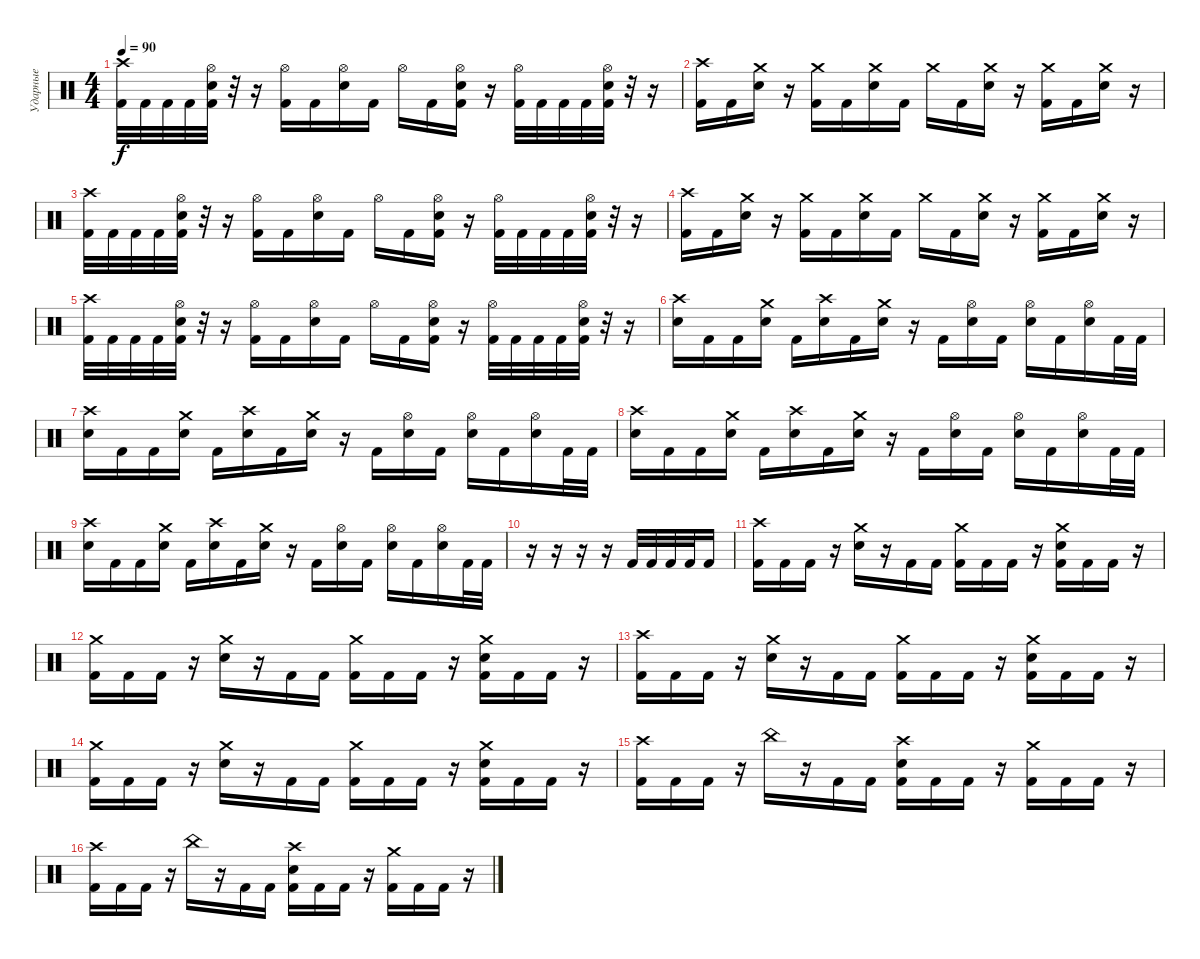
\track ("Ударные" "Ударные") {instrument percussion}
\staff {score}
\articulation defaults
\ts (4 4)
\tempo 90
\clef neutral
\ks c
("Crash high (hit)" "Kick (hit) 2").32{dy f} "Kick (hit) 2".32 "Kick (hit) 2".32 "Kick (hit) 2".32 ("Hi-Hat (open)" "Electric Snare (hit)" "Kick (hit) 2").32 r.32 r.16 ("Hi-Hat (open)" "Kick (hit) 2").16 "Kick (hit) 2".16 ("Hi-Hat (open)" "Electric Snare (hit)").16 "Kick (hit) 2".16 "Hi-Hat (open)".16 "Kick (hit) 2".16 ("Hi-Hat (open)" "Electric Snare (hit)" "Kick (hit) 2").16 r.16 ("Hi-Hat (open)" "Kick (hit) 2").32 "Kick (hit) 2".32 "Kick (hit) 2".32 "Kick (hit) 2".32 ("Hi-Hat (open)" "Electric Snare (hit)" "Kick (hit) 2").32 r.32 r.16 |
("Crash high (hit)" "Kick (hit) 2").16 "Kick (hit) 2".16 ("Crash medium (hit)" "Electric Snare (hit)").16 r.16 ("Crash medium (hit)" "Kick (hit) 2").16 "Kick (hit) 2".16 ("Crash medium (hit)" "Electric Snare (hit)").16 "Kick (hit) 2".16 "Crash medium (hit)".16 "Kick (hit) 2".16 ("Crash medium (hit)" "Electric Snare (hit)").16 r.16 ("Crash medium (hit)" "Kick (hit) 2").16 "Kick (hit) 2".16 ("Crash medium (hit)" "Electric Snare (hit)").16 r.16 |
("Crash high (hit)" "Kick (hit) 2").32 "Kick (hit) 2".32 "Kick (hit) 2".32 "Kick (hit) 2".32 ("Hi-Hat (open)" "Electric Snare (hit)" "Kick (hit) 2").32 r.32 r.16 ("Hi-Hat (open)" "Kick (hit) 2").16 "Kick (hit) 2".16 ("Hi-Hat (open)" "Electric Snare (hit)").16 "Kick (hit) 2".16 "Hi-Hat (open)".16 "Kick (hit) 2".16 ("Hi-Hat (open)" "Electric Snare (hit)" "Kick (hit) 2").16 r.16 ("Hi-Hat (open)" "Kick (hit) 2").32 "Kick (hit) 2".32 "Kick (hit) 2".32 "Kick (hit) 2".32 ("Hi-Hat (open)" "Electric Snare (hit)" "Kick (hit) 2").32 r.32 r.16 |
("Crash high (hit)" "Kick (hit) 2").16 "Kick (hit) 2".16 ("Crash medium (hit)" "Electric Snare (hit)").16 r.16 ("Crash medium (hit)" "Kick (hit) 2").16 "Kick (hit) 2".16 ("Crash medium (hit)" "Electric Snare (hit)").16 "Kick (hit) 2".16 "Crash medium (hit)".16 "Kick (hit) 2".16 ("Crash medium (hit)" "Electric Snare (hit)").16 r.16 ("Crash medium (hit)" "Kick (hit) 2").16 "Kick (hit) 2".16 ("Crash medium (hit)" "Electric Snare (hit)").16 r.16 |
("Crash high (hit)" "Kick (hit) 2").32 "Kick (hit) 2".32 "Kick (hit) 2".32 "Kick (hit) 2".32 ("Hi-Hat (open)" "Electric Snare (hit)" "Kick (hit) 2").32 r.32 r.16 ("Hi-Hat (open)" "Kick (hit) 2").16 "Kick (hit) 2".16 ("Hi-Hat (open)" "Electric Snare (hit)").16 "Kick (hit) 2".16 "Hi-Hat (open)".16 "Kick (hit) 2".16 ("Hi-Hat (open)" "Electric Snare (hit)" "Kick (hit) 2").16 r.16 ("Hi-Hat (open)" "Kick (hit) 2").32 "Kick (hit) 2".32 "Kick (hit) 2".32 "Kick (hit) 2".32 ("Hi-Hat (open)" "Electric Snare (hit)" "Kick (hit) 2").32 r.32 r.16 |
("Crash high (hit)" "Electric Snare (hit)").16 "Kick (hit) 2".16 "Kick (hit) 2".16 ("Crash medium (hit)" "Electric Snare (hit)").16 "Kick (hit) 2".16 ("Crash high (hit)" "Electric Snare (hit)").16 "Kick (hit) 2".16 ("Crash medium (hit)" "Electric Snare (hit)").16 r.16 "Kick (hit) 2".16 ("Hi-Hat (open)" "Electric Snare (hit)").16 "Kick (hit) 2".16 ("Hi-Hat (open)" "Electric Snare (hit)").16 "Kick (hit) 2".16 ("Hi-Hat (open)" "Electric Snare (hit)").16 "Kick (hit) 2".32 "Kick (hit) 2".32 |
("Crash high (hit)" "Electric Snare (hit)").16 "Kick (hit) 2".16 "Kick (hit) 2".16 ("Crash medium (hit)" "Electric Snare (hit)").16 "Kick (hit) 2".16 ("Crash high (hit)" "Electric Snare (hit)").16 "Kick (hit) 2".16 ("Crash medium (hit)" "Electric Snare (hit)").16 r.16 "Kick (hit) 2".16 ("Hi-Hat (open)" "Electric Snare (hit)").16 "Kick (hit) 2".16 ("Hi-Hat (open)" "Electric Snare (hit)").16 "Kick (hit) 2".16 ("Hi-Hat (open)" "Electric Snare (hit)").16 "Kick (hit) 2".32 "Kick (hit) 2".32 |
("Crash high (hit)" "Electric Snare (hit)").16 "Kick (hit) 2".16 "Kick (hit) 2".16 ("Crash medium (hit)" "Electric Snare (hit)").16 "Kick (hit) 2".16 ("Crash high (hit)" "Electric Snare (hit)").16 "Kick (hit) 2".16 ("Crash medium (hit)" "Electric Snare (hit)").16 r.16 "Kick (hit) 2".16 ("Hi-Hat (open)" "Electric Snare (hit)").16 "Kick (hit) 2".16 ("Hi-Hat (open)" "Electric Snare (hit)").16 "Kick (hit) 2".16 ("Hi-Hat (open)" "Electric Snare (hit)").16 "Kick (hit) 2".32 "Kick (hit) 2".32 |
("Crash high (hit)" "Electric Snare (hit)").16 "Kick (hit) 2".16 "Kick (hit) 2".16 ("Crash medium (hit)" "Electric Snare (hit)").16 "Kick (hit) 2".16 ("Crash high (hit)" "Electric Snare (hit)").16 "Kick (hit) 2".16 ("Crash medium (hit)" "Electric Snare (hit)").16 r.16 "Kick (hit) 2".16 ("Hi-Hat (open)" "Electric Snare (hit)").16 "Kick (hit) 2".16 ("Hi-Hat (open)" "Electric Snare (hit)").16 "Kick (hit) 2".16 ("Hi-Hat (open)" "Electric Snare (hit)").16 "Kick (hit) 2".32 "Kick (hit) 2".32 |
r.16 r.16 r.16 r.16 "Kick (hit) 2".32 "Kick (hit) 2".32 "Kick (hit) 2".32 "Kick (hit) 2".32 "Kick (hit) 2".16 |
("Crash high (hit)" "Kick (hit) 2").16 "Kick (hit) 2".16 "Kick (hit) 2".16 r.16 ("Crash medium (hit)" "Electric Snare (hit)").16 r.16 "Kick (hit) 2".16 "Kick (hit) 2".16 ("Crash medium (hit)" "Kick (hit) 2").16 "Kick (hit) 2".16 "Kick (hit) 2".16 r.16 ("Crash medium (hit)" "Electric Snare (hit)" "Kick (hit) 2").16 "Kick (hit) 2".16 "Kick (hit) 2".16 r.16 |
("Crash medium (hit)" "Kick (hit) 2").16 "Kick (hit) 2".16 "Kick (hit) 2".16 r.16 ("Crash medium (hit)" "Electric Snare (hit)").16 r.16 "Kick (hit) 2".16 "Kick (hit) 2".16 ("Crash medium (hit)" "Kick (hit) 2").16 "Kick (hit) 2".16 "Kick (hit) 2".16 r.16 ("Crash medium (hit)" "Electric Snare (hit)" "Kick (hit) 2").16 "Kick (hit) 2".16 "Kick (hit) 2".16 r.16 |
("Crash high (hit)" "Kick (hit) 2").16 "Kick (hit) 2".16 "Kick (hit) 2".16 r.16 ("Crash medium (hit)" "Electric Snare (hit)").16 r.16 "Kick (hit) 2".16 "Kick (hit) 2".16 ("Crash medium (hit)" "Kick (hit) 2").16 "Kick (hit) 2".16 "Kick (hit) 2".16 r.16 ("Crash medium (hit)" "Electric Snare (hit)" "Kick (hit) 2").16 "Kick (hit) 2".16 "Kick (hit) 2".16 r.16 |
("Crash medium (hit)" "Kick (hit) 2").16 "Kick (hit) 2".16 "Kick (hit) 2".16 r.16 ("Crash medium (hit)" "Electric Snare (hit)").16 r.16 "Kick (hit) 2".16 "Kick (hit) 2".16 ("Crash medium (hit)" "Kick (hit) 2").16 "Kick (hit) 2".16 "Kick (hit) 2".16 r.16 ("Crash medium (hit)" "Electric Snare (hit)" "Kick (hit) 2").16 "Kick (hit) 2".16 "Kick (hit) 2".16 r.16 |
("Crash high (hit)" "Kick (hit) 2").16 "Kick (hit) 2".16 "Kick (hit) 2".16 r.16 "China (hit)".16 r.16 "Kick (hit) 2".16 "Kick (hit) 2".16 ("Crash high (hit)" "Electric Snare (hit)" "Kick (hit) 2").16 "Kick (hit) 2".16 "Kick (hit) 2".16 r.16 ("Crash medium (hit)" "Kick (hit) 2").16 "Kick (hit) 2".16 "Kick (hit) 2".16 r.16 |
("Crash high (hit)" "Kick (hit) 2").16 "Kick (hit) 2".16 "Kick (hit) 2".16 r.16 "China (hit)".16 r.16 "Kick (hit) 2".16 "Kick (hit) 2".16 ("Crash high (hit)" "Electric Snare (hit)" "Kick (hit) 2").16 "Kick (hit) 2".16 "Kick (hit) 2".16 r.16 ("Crash medium (hit)" "Kick (hit) 2").16 "Kick (hit) 2".16 "Kick (hit) 2".16 r.16
